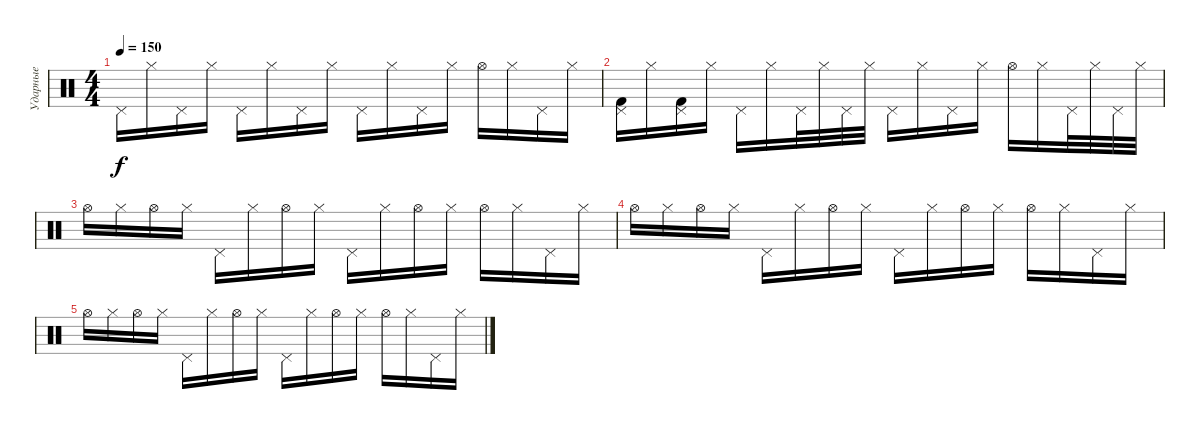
\track ("Ударные" "Ударные") {mute instrument percussion}
\staff {score}
\articulation defaults
\ts (4 4)
\tempo 150
\clef neutral
\ks c "Pedal Hi-Hat (hit)".16{dy f} "Hi-Hat (closed)".16 "Pedal Hi-Hat (hit)".16 "Hi-Hat (closed)".16 "Pedal Hi-Hat (hit)".16 "Hi-Hat (closed)".16 "Pedal Hi-Hat (hit)".16 "Hi-Hat (closed)".16 "Pedal Hi-Hat (hit)".16 "Hi-Hat (closed)".16 "Pedal Hi-Hat (hit)".16 "Hi-Hat (closed)".16 "Hi-Hat (open)".16 "Hi-Hat (closed)".16 "Pedal Hi-Hat (hit)".16 "Hi-Hat (closed)".16
|
("Pedal Hi-Hat (hit)" "Kick (hit) 2").16 "Hi-Hat (closed)".16 ("Pedal Hi-Hat (hit)" "Kick (hit) 2").16 "Hi-Hat (closed)".16 "Pedal Hi-Hat (hit)".16 "Hi-Hat (closed)".16 "Pedal Hi-Hat (hit)".32 "Hi-Hat (closed)".32 "Pedal Hi-Hat (hit)".32 "Hi-Hat (closed)".32 "Pedal Hi-Hat (hit)".16 "Hi-Hat (closed)".16 "Pedal Hi-Hat (hit)".16 "Hi-Hat (closed)".16 "Hi-Hat (open)".16 "Hi-Hat (closed)".16 "Pedal Hi-Hat (hit)".32 "Hi-Hat (closed)".32 "Pedal Hi-Hat (hit)".32 "Hi-Hat (closed)".32 |
"Hi-Hat (open)".16 "Hi-Hat (closed)".16 "Hi-Hat (open)".16 "Hi-Hat (closed)".16 "Pedal Hi-Hat (hit)".16 "Hi-Hat (closed)".16 "Hi-Hat (open)".16 "Hi-Hat (closed)".16 "Pedal Hi-Hat (hit)".16 "Hi-Hat (closed)".16 "Hi-Hat (open)".16 "Hi-Hat (closed)".16 "Hi-Hat (open)".16 "Hi-Hat (closed)".16 "Pedal Hi-Hat (hit)".16 "Hi-Hat (closed)".16 |
"Hi-Hat (open)".16 "Hi-Hat (closed)".16 "Hi-Hat (open)".16 "Hi-Hat (closed)".16 "Pedal Hi-Hat (hit)".16 "Hi-Hat (closed)".16 "Hi-Hat (open)".16 "Hi-Hat (closed)".16 "Pedal Hi-Hat (hit)".16 "Hi-Hat (closed)".16 "Hi-Hat (open)".16 "Hi-Hat (closed)".16 "Hi-Hat (open)".16 "Hi-Hat (closed)".16 "Pedal Hi-Hat (hit)".16 "Hi-Hat (closed)".16 |
"Hi-Hat (open)".16 "Hi-Hat (closed)".16 "Hi-Hat (open)".16 "Hi-Hat (closed)".16 "Pedal Hi-Hat (hit)".16 "Hi-Hat (closed)".16 "Hi-Hat (open)".16 "Hi-Hat (closed)".16 "Pedal Hi-Hat (hit)".16 "Hi-Hat (closed)".16 "Hi-Hat (open)".16 "Hi-Hat (closed)".16 "Hi-Hat (open)".16 "Hi-Hat (closed)".16 "Pedal Hi-Hat (hit)".16 "Hi-Hat (closed)".16
